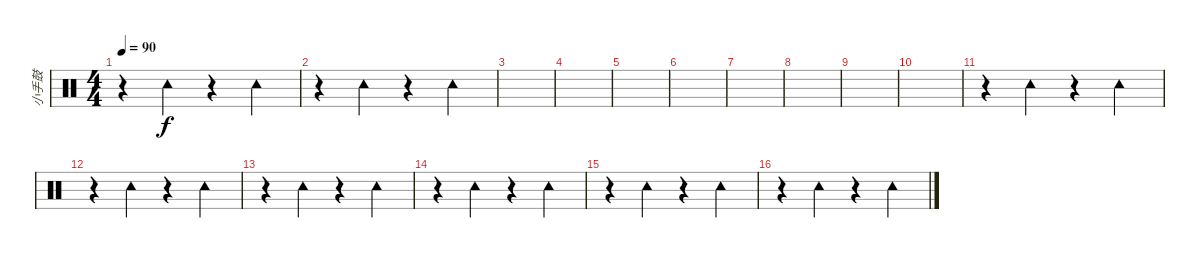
\track ("小手鼓" "小手鼓") {instrument percussion}
\staff {score}
\articulation defaults
\ts (4 4)
\tempo 90
\clef neutral
\ks c
r.4{dy f} "Tambourine (hit)".4 r.4 "Tambourine (hit)".4 |
r.4 "Tambourine (hit)".4 r.4 "Tambourine (hit)".4 |
|
|
|
|
|
|
|
|
r.4 "Tambourine (hit)".4 r.4 "Tambourine (hit)".4 |
r.4 "Tambourine (hit)".4 r.4 "Tambourine (hit)".4 |
r.4 "Tambourine (hit)".4 r.4 "Tambourine (hit)".4 |
r.4 "Tambourine (hit)".4 r.4 "Tambourine (hit)".4 |
r.4 "Tambourine (hit)".4 r.4 "Tambourine (hit)".4 |
r.4 "Tambourine (hit)".4 r.4 "Tambourine (hit)".4
